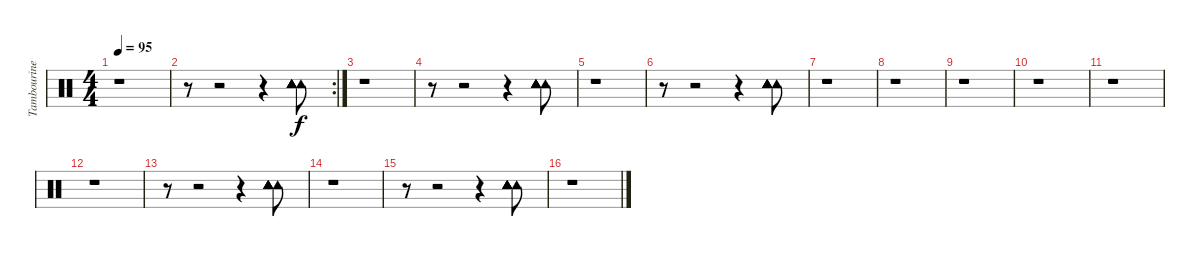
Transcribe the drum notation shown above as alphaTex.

\track ("Tambourine" "Tambourine") {instrument percussion}
\staff {score}
\articulation defaults
\ts (4 4)
\tempo 95
\clef neutral
\ks c
r.1{dy f} |
\rc 2
r.8 r.2 r.4 ("Tambourine (hit)" "Tambourine (hit)" "Tambourine (hit)" "Tambourine (hit)" "Tambourine (hit)" "Tambourine (hit)").8 |
r.1 |
r.8 r.2 r.4 ("Tambourine (hit)" "Tambourine (hit)" "Tambourine (hit)" "Tambourine (hit)" "Tambourine (hit)" "Tambourine (hit)").8 |
r.1 |
r.8 r.2 r.4 ("Tambourine (hit)" "Tambourine (hit)" "Tambourine (hit)" "Tambourine (hit)" "Tambourine (hit)" "Tambourine (hit)").8 |
r.1 |
r.1 |
r.1 |
r.1 |
r.1 |
r.1 |
r.8 r.2 r.4 ("Tambourine (hit)" "Tambourine (hit)" "Tambourine (hit)" "Tambourine (hit)" "Tambourine (hit)" "Tambourine (hit)").8 |
r.1 |
r.8 r.2 r.4 ("Tambourine (hit)" "Tambourine (hit)" "Tambourine (hit)" "Tambourine (hit)" "Tambourine (hit)" "Tambourine (hit)").8 |
r.1
